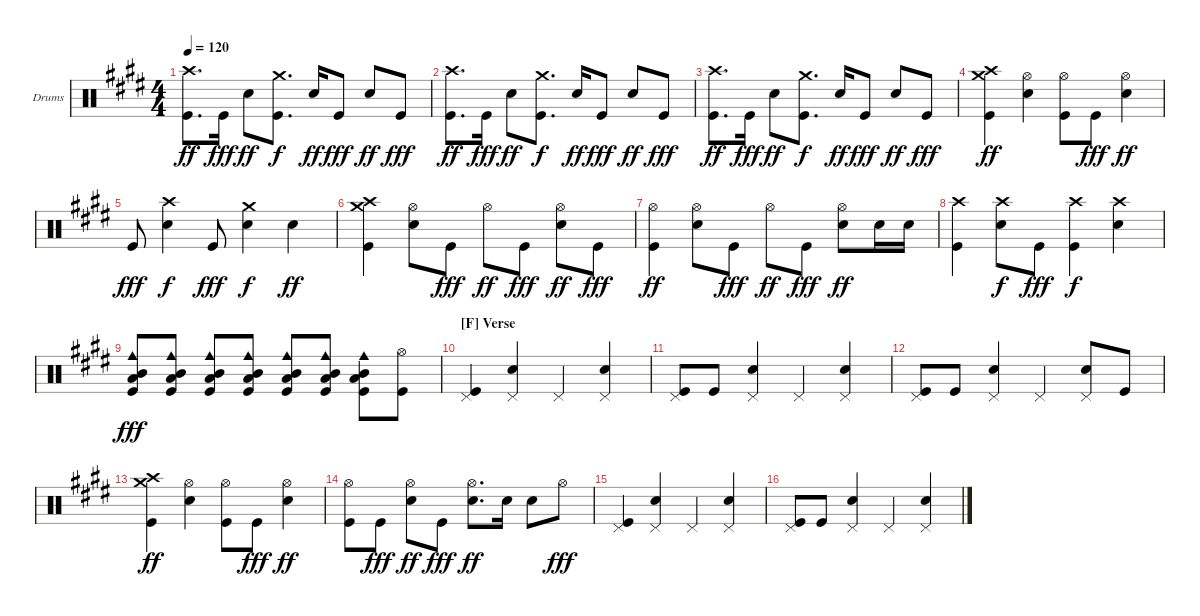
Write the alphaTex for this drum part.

\defaultSystemsLayout 4
\bracketExtendMode groupsimilarinstruments
\firstSystemTrackNameOrientation horizontal
\otherSystemsTrackNameOrientation horizontal
\track ("Drums" "Drums") {instrument percussion}
\staff {score}
\articulation defaults
\ts (4 4)
\tempo 120
\clef neutral
\scale
1.06557
\ks e
("Crash high (hit)" "Kick (hit)").8{d dy ff} "Kick (hit)".16{dy fff} "Snare (hit) 2".8{dy ff} ("Crash medium (hit)" "Kick (hit)").8{d dy f} "Snare (hit) 2".16{dy ff} "Kick (hit)".8{dy fff} "Snare (hit) 2".8{dy ff} "Kick (hit)".8{dy fff} |
\scale
0.934426 ("Crash high (hit)" "Kick (hit)").8{d dy ff} "Kick (hit)".16{dy fff} "Snare (hit) 2".8{dy ff} ("Crash medium (hit)" "Kick (hit)").8{d dy f} "Snare (hit) 2".16{dy ff} "Kick (hit)".8{dy fff} "Snare (hit) 2".8{dy ff} "Kick (hit)".8{dy fff} |
\scale
1.06557 ("Crash high (hit)" "Kick (hit)").8{d dy ff} "Kick (hit)".16{dy fff} "Snare (hit) 2".8{dy ff} ("Crash medium (hit)" "Kick (hit)").8{d dy f} "Snare (hit) 2".16{dy ff} "Kick (hit)".8{dy fff} "Snare (hit) 2".8{dy ff} "Kick (hit)".8{dy fff} |
\scale
0.934426 ("Crash medium (hit)" "Crash high (hit)" "Kick (hit)").4{dy ff} ("Hi-Hat (open)" "Snare (hit) 2").4 ("Hi-Hat (open)" "Kick (hit)").8 "Kick (hit)".8{dy fff} ("Hi-Hat (open)" "Snare (hit) 2").4{dy ff} |
\scale
1.06557 "Kick (hit)".8{dy fff} ("Crash high (hit)" "Snare (hit) 2").4{dy f} "Kick (hit)".8{dy fff} ("Crash medium (hit)" "Snare (hit) 2").4{dy f} "Snare (hit) 2".4{dy ff} |
\scale
0.934426 ("Crash high (hit)" "Crash medium (hit)" "Kick (hit)").4 ("Hi-Hat (open)" "Snare (hit) 2").8 "Kick (hit)".8{dy fff} "Hi-Hat (open)".8{dy ff} "Kick (hit)".8{dy fff} ("Hi-Hat (open)" "Snare (hit) 2").8{dy ff} "Kick (hit)".8{dy fff} |
\scale
1.06557 ("Hi-Hat (open)" "Kick (hit)").4{dy ff} ("Hi-Hat (open)" "Snare (hit) 2").8 "Kick (hit)".8{dy fff} "Hi-Hat (open)".8{dy ff} "Kick (hit)".8{dy fff} ("Hi-Hat (open)" "Snare (hit) 2").8{dy ff} "Snare (hit) 2".16 "Snare (hit) 2".16 |
\scale
0.934426 ("Crash high (hit)" "Kick (hit)").4 ("Crash high (hit)" "Snare (hit) 2").8{dy f} "Kick (hit)".8{dy fff} ("Crash high (hit)" "Kick (hit)").4{dy f} ("Crash high (hit)" "Snare (hit) 2").4 |
\scale
1.06557 ("Cowbell medium (hit)" "Mid Tom (hit)" "Low Tom (hit)" "Kick (hit)").8{dy fff} ("Cowbell medium (hit)" "Mid Tom (hit)" "Low Tom (hit)" "Kick (hit)").8 ("Cowbell medium (hit)" "Mid Tom (hit)" "Low Tom (hit)" "Kick (hit)").8 ("Cowbell medium (hit)" "Mid Tom (hit)" "Low Tom (hit)" "Kick (hit)").8 ("Cowbell medium (hit)" "Mid Tom (hit)" "Low Tom (hit)" "Kick (hit)").8 ("Cowbell medium (hit)" "Mid Tom (hit)" "Low Tom (hit)" "Kick (hit)").8 ("Cowbell medium (hit)" "Mid Tom (hit)" "Low Tom (hit)" "Kick (hit)").8 ("Hi-Hat (open)" "Kick (hit)").8 |
\section ("F" "Verse")
\scale
0.934426 ("Pedal Hi-Hat (hit)" "Kick (hit)").4 ("Pedal Hi-Hat (hit)" "Snare (hit) 2").4 "Pedal Hi-Hat (hit)".4 ("Pedal Hi-Hat (hit)" "Snare (hit) 2").4 |
\scale
1.06557 ("Pedal Hi-Hat (hit)" "Kick (hit)").8 "Kick (hit)".8 ("Pedal Hi-Hat (hit)" "Snare (hit) 2").4 "Pedal Hi-Hat (hit)".4 ("Pedal Hi-Hat (hit)" "Snare (hit) 2").4 |
\scale
0.934426 ("Pedal Hi-Hat (hit)" "Kick (hit)").8 "Kick (hit)".8 ("Pedal Hi-Hat (hit)" "Snare (hit) 2").4 "Pedal Hi-Hat (hit)".4 ("Pedal Hi-Hat (hit)" "Snare (hit) 2").8 "Kick (hit)".8 |
\scale
1.06557 ("Crash high (hit)" "Crash medium (hit)" "Kick (hit)").4{dy ff} ("Hi-Hat (open)" "Snare (hit) 2").4 ("Hi-Hat (open)" "Kick (hit)").8 "Kick (hit)".8{dy fff} ("Hi-Hat (open)" "Snare (hit) 2").4{dy ff} |
\scale
0.934426 ("Hi-Hat (open)" "Kick (hit)").8 "Kick (hit)".8{dy fff} ("Hi-Hat (open)" "Snare (hit) 2").8{dy ff} "Kick (hit)".8{dy fff} ("Hi-Hat (open)" "Snare (hit) 2").8{d dy ff} "Snare (hit) 2".16 "Snare (hit) 2".8 "Hi-Hat (open)".8{dy fff} |
\scale
1.06557 ("Pedal Hi-Hat (hit)" "Kick (hit)").4 ("Pedal Hi-Hat (hit)" "Snare (hit) 2").4 "Pedal Hi-Hat (hit)".4 ("Pedal Hi-Hat (hit)" "Snare (hit) 2").4 |
\scale
0.934426 ("Pedal Hi-Hat (hit)" "Kick (hit)").8 "Kick (hit)".8 ("Pedal Hi-Hat (hit)" "Snare (hit) 2").4 "Pedal Hi-Hat (hit)".4 ("Pedal Hi-Hat (hit)" "Snare (hit) 2").4
